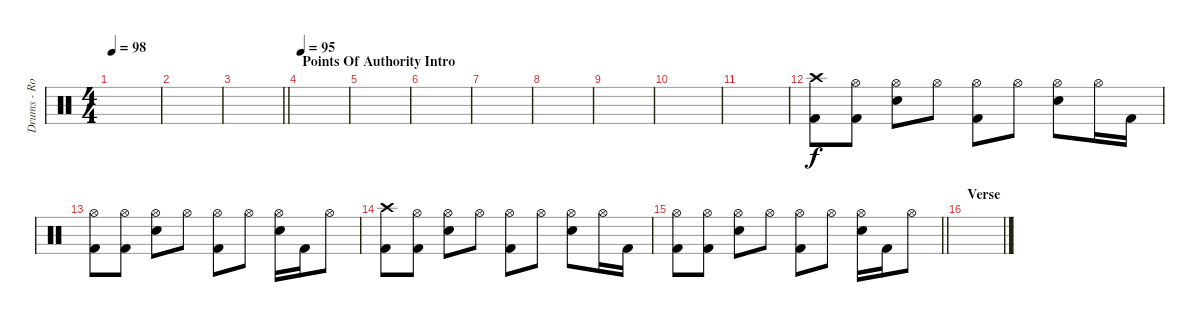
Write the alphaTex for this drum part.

\track ("Drums - Rob Bourdon" "Drums - Ro") {instrument percussion}
\staff {score}
\articulation defaults
\ts (4 4)
\tempo 98
\clef neutral
\ks c
|
|
\barLineRight lightlight
|
\section ("" "Points Of Authority Intro")
\tempo 95
|
|
|
|
|
|
|
|
("Crash high (hit)" "Kick (hit) 2").8{volume 13} ("Hi-Hat (open)" "Kick (hit) 2").8 ("Hi-Hat (open)" "Snare (hit) 2").8 "Hi-Hat (open)".8 ("Hi-Hat (open)" "Kick (hit) 2").8 "Hi-Hat (open)".8 ("Hi-Hat (open)" "Snare (hit) 2").8 "Hi-Hat (open)".16 "Kick (hit) 2".16 |
("Hi-Hat (open)" "Kick (hit) 2").8 ("Hi-Hat (open)" "Kick (hit) 2").8 ("Hi-Hat (open)" "Snare (hit) 2").8 "Hi-Hat (open)".8 ("Hi-Hat (open)" "Kick (hit) 2").8 "Hi-Hat (open)".8 ("Hi-Hat (open)" "Snare (hit) 2").16 "Kick (hit) 2".16 "Hi-Hat (open)".8 |
("Crash high (hit)" "Kick (hit) 2").8 ("Hi-Hat (open)" "Kick (hit) 2").8 ("Hi-Hat (open)" "Snare (hit) 2").8 "Hi-Hat (open)".8 ("Hi-Hat (open)" "Kick (hit) 2").8 "Hi-Hat (open)".8 ("Hi-Hat (open)" "Snare (hit) 2").8 "Hi-Hat (open)".16 "Kick (hit) 2".16 |
\barLineRight lightlight
("Hi-Hat (open)" "Kick (hit) 2").8 ("Hi-Hat (open)" "Kick (hit) 2").8 ("Hi-Hat (open)" "Snare (hit) 2").8 "Hi-Hat (open)".8 ("Hi-Hat (open)" "Kick (hit) 2").8 "Hi-Hat (open)".8 ("Hi-Hat (open)" "Snare (hit) 2").16 "Kick (hit) 2".16 "Hi-Hat (open)".8 |
\section ("" "Verse")
